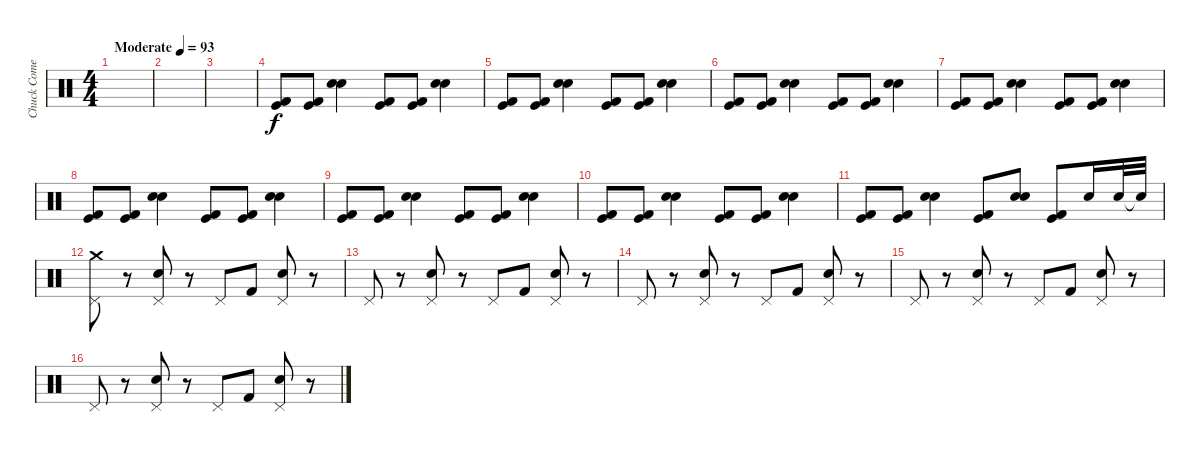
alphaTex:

\track ("Chuck Comeau" "Chuck Come") {instrument percussion}
\staff {score}
\articulation defaults
\ts (4 4)
\tempo (93 "Moderate")
\clef neutral
\ks c
|
|
|
("Kick (hit) 2" "Kick (hit)").8 ("Kick (hit) 2" "Kick (hit)").8 ("Electric Snare (hit)" "Snare (hit) 2").4 ("Kick (hit) 2" "Kick (hit)").8 ("Kick (hit) 2" "Kick (hit)").8 ("Electric Snare (hit)" "Snare (hit) 2").4 |
("Kick (hit) 2" "Kick (hit)").8 ("Kick (hit) 2" "Kick (hit)").8 ("Electric Snare (hit)" "Snare (hit) 2").4 ("Kick (hit) 2" "Kick (hit)").8 ("Kick (hit) 2" "Kick (hit)").8 ("Electric Snare (hit)" "Snare (hit) 2").4 |
("Kick (hit) 2" "Kick (hit)").8 ("Kick (hit) 2" "Kick (hit)").8 ("Electric Snare (hit)" "Snare (hit) 2").4 ("Kick (hit) 2" "Kick (hit)").8 ("Kick (hit) 2" "Kick (hit)").8 ("Electric Snare (hit)" "Snare (hit) 2").4 |
("Kick (hit) 2" "Kick (hit)").8 ("Kick (hit) 2" "Kick (hit)").8 ("Electric Snare (hit)" "Snare (hit) 2").4 ("Kick (hit) 2" "Kick (hit)").8 ("Kick (hit) 2" "Kick (hit)").8 ("Electric Snare (hit)" "Snare (hit) 2").4 |
("Kick (hit) 2" "Kick (hit)").8 ("Kick (hit) 2" "Kick (hit)").8 ("Electric Snare (hit)" "Snare (hit) 2").4 ("Kick (hit) 2" "Kick (hit)").8 ("Kick (hit) 2" "Kick (hit)").8 ("Electric Snare (hit)" "Snare (hit) 2").4 |
("Kick (hit) 2" "Kick (hit)").8 ("Kick (hit) 2" "Kick (hit)").8 ("Electric Snare (hit)" "Snare (hit) 2").4 ("Kick (hit) 2" "Kick (hit)").8 ("Kick (hit) 2" "Kick (hit)").8 ("Electric Snare (hit)" "Snare (hit) 2").4 |
("Kick (hit) 2" "Kick (hit)").8 ("Kick (hit) 2" "Kick (hit)").8 ("Electric Snare (hit)" "Snare (hit) 2").4 ("Kick (hit) 2" "Kick (hit)").8 ("Kick (hit) 2" "Kick (hit)").8 ("Electric Snare (hit)" "Snare (hit) 2").4 |
("Kick (hit) 2" "Kick (hit)").8 ("Kick (hit) 2" "Kick (hit)").8 ("Electric Snare (hit)" "Snare (hit) 2").4 ("Kick (hit)" "Kick (hit) 2").8 ("Electric Snare (hit)" "Snare (hit) 2").8 ("Kick (hit)" "Kick (hit) 2").8 "Electric Snare (hit)".16 "Electric Snare (hit)".32 "Electric Snare (hit)"{t}.32 |
("Pedal Hi-Hat (hit)" "Crash medium (hit)").8 r.8 ("Pedal Hi-Hat (hit)" "Electric Snare (hit)").8 r.8 "Pedal Hi-Hat (hit)".8 "Kick (hit) 2".8 ("Pedal Hi-Hat (hit)" "Electric Snare (hit)").8 r.8 |
"Pedal Hi-Hat (hit)".8 r.8 ("Pedal Hi-Hat (hit)" "Electric Snare (hit)").8 r.8 "Pedal Hi-Hat (hit)".8 "Kick (hit) 2".8 ("Pedal Hi-Hat (hit)" "Electric Snare (hit)").8 r.8 |
"Pedal Hi-Hat (hit)".8 r.8 ("Pedal Hi-Hat (hit)" "Electric Snare (hit)").8 r.8 "Pedal Hi-Hat (hit)".8 "Kick (hit) 2".8 ("Pedal Hi-Hat (hit)" "Electric Snare (hit)").8 r.8 |
"Pedal Hi-Hat (hit)".8 r.8 ("Pedal Hi-Hat (hit)" "Electric Snare (hit)").8 r.8 "Pedal Hi-Hat (hit)".8 "Kick (hit) 2".8 ("Pedal Hi-Hat (hit)" "Electric Snare (hit)").8 r.8 |
"Pedal Hi-Hat (hit)".8 r.8 ("Pedal Hi-Hat (hit)" "Electric Snare (hit)").8 r.8 "Pedal Hi-Hat (hit)".8 "Kick (hit) 2".8 ("Pedal Hi-Hat (hit)" "Electric Snare (hit)").8 r.8
